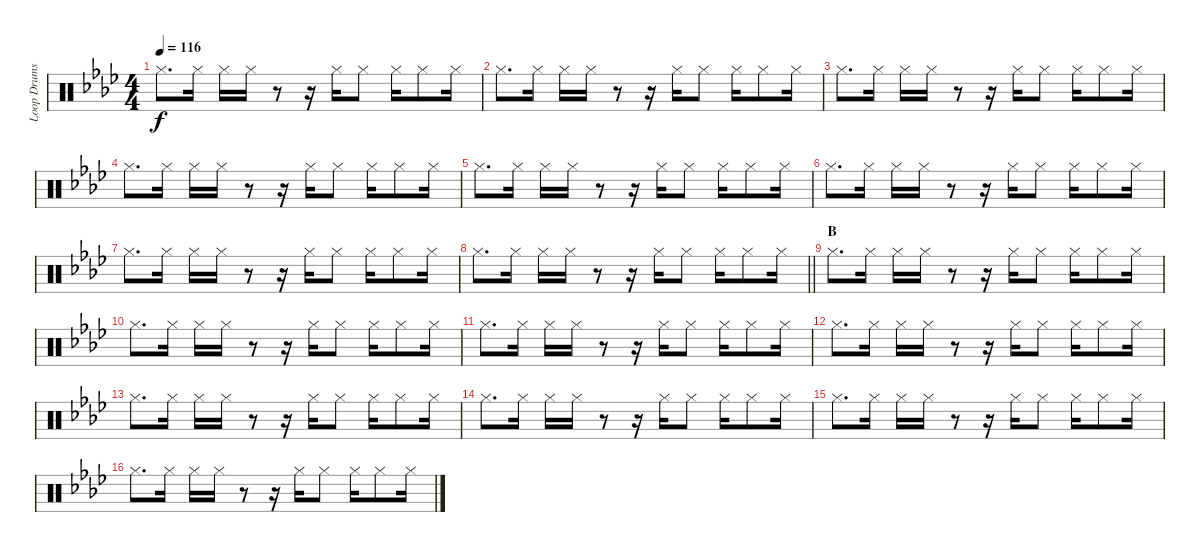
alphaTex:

\track ("Loop Drums II" "Loop Drums") {instrument percussion}
\staff {score}
\articulation defaults
\ts (4 4)
\tempo 116
\clef neutral
\ks ab "Hi-Hat (closed)".8{d dy f} "Hi-Hat (closed)".16 "Hi-Hat (closed)".16 "Hi-Hat (closed)".16
r.8 r.16 "Hi-Hat (closed)".16 "Hi-Hat (closed)".8 "Hi-Hat (closed)".16 "Hi-Hat (closed)".8 "Hi-Hat (closed)".16 |
"Hi-Hat (closed)".8{d} "Hi-Hat (closed)".16 "Hi-Hat (closed)".16 "Hi-Hat (closed)".16 r.8 r.16 "Hi-Hat (closed)".16 "Hi-Hat (closed)".8 "Hi-Hat (closed)".16 "Hi-Hat (closed)".8 "Hi-Hat (closed)".16 |
"Hi-Hat (closed)".8{d} "Hi-Hat (closed)".16 "Hi-Hat (closed)".16 "Hi-Hat (closed)".16 r.8 r.16 "Hi-Hat (closed)".16 "Hi-Hat (closed)".8 "Hi-Hat (closed)".16 "Hi-Hat (closed)".8 "Hi-Hat (closed)".16 |
"Hi-Hat (closed)".8{d} "Hi-Hat (closed)".16 "Hi-Hat (closed)".16 "Hi-Hat (closed)".16 r.8 r.16 "Hi-Hat (closed)".16 "Hi-Hat (closed)".8 "Hi-Hat (closed)".16 "Hi-Hat (closed)".8 "Hi-Hat (closed)".16 |
"Hi-Hat (closed)".8{d} "Hi-Hat (closed)".16 "Hi-Hat (closed)".16 "Hi-Hat (closed)".16 r.8 r.16 "Hi-Hat (closed)".16 "Hi-Hat (closed)".8 "Hi-Hat (closed)".16 "Hi-Hat (closed)".8 "Hi-Hat (closed)".16 |
"Hi-Hat (closed)".8{d} "Hi-Hat (closed)".16 "Hi-Hat (closed)".16 "Hi-Hat (closed)".16 r.8 r.16 "Hi-Hat (closed)".16 "Hi-Hat (closed)".8 "Hi-Hat (closed)".16 "Hi-Hat (closed)".8 "Hi-Hat (closed)".16 |
"Hi-Hat (closed)".8{d} "Hi-Hat (closed)".16 "Hi-Hat (closed)".16 "Hi-Hat (closed)".16 r.8 r.16 "Hi-Hat (closed)".16 "Hi-Hat (closed)".8 "Hi-Hat (closed)".16 "Hi-Hat (closed)".8 "Hi-Hat (closed)".16 |
\barLineRight lightlight "Hi-Hat (closed)".8{d} "Hi-Hat (closed)".16 "Hi-Hat (closed)".16 "Hi-Hat (closed)".16
r.8 r.16 "Hi-Hat (closed)".16 "Hi-Hat (closed)".8 "Hi-Hat (closed)".16 "Hi-Hat (closed)".8 "Hi-Hat (closed)".16 |
\section ("" "B")
"Hi-Hat (closed)".8{d} "Hi-Hat (closed)".16 "Hi-Hat (closed)".16 "Hi-Hat (closed)".16 r.8 r.16 "Hi-Hat (closed)".16 "Hi-Hat (closed)".8 "Hi-Hat (closed)".16 "Hi-Hat (closed)".8 "Hi-Hat (closed)".16 |
"Hi-Hat (closed)".8{d} "Hi-Hat (closed)".16 "Hi-Hat (closed)".16 "Hi-Hat (closed)".16 r.8 r.16 "Hi-Hat (closed)".16 "Hi-Hat (closed)".8 "Hi-Hat (closed)".16 "Hi-Hat (closed)".8 "Hi-Hat (closed)".16 |
"Hi-Hat (closed)".8{d} "Hi-Hat (closed)".16 "Hi-Hat (closed)".16 "Hi-Hat (closed)".16 r.8 r.16 "Hi-Hat (closed)".16 "Hi-Hat (closed)".8 "Hi-Hat (closed)".16 "Hi-Hat (closed)".8 "Hi-Hat (closed)".16 |
"Hi-Hat (closed)".8{d} "Hi-Hat (closed)".16 "Hi-Hat (closed)".16 "Hi-Hat (closed)".16 r.8 r.16 "Hi-Hat (closed)".16 "Hi-Hat (closed)".8 "Hi-Hat (closed)".16 "Hi-Hat (closed)".8 "Hi-Hat (closed)".16 |
"Hi-Hat (closed)".8{d} "Hi-Hat (closed)".16 "Hi-Hat (closed)".16 "Hi-Hat (closed)".16 r.8 r.16 "Hi-Hat (closed)".16 "Hi-Hat (closed)".8 "Hi-Hat (closed)".16 "Hi-Hat (closed)".8 "Hi-Hat (closed)".16 |
"Hi-Hat (closed)".8{d} "Hi-Hat (closed)".16 "Hi-Hat (closed)".16 "Hi-Hat (closed)".16 r.8 r.16 "Hi-Hat (closed)".16 "Hi-Hat (closed)".8 "Hi-Hat (closed)".16 "Hi-Hat (closed)".8 "Hi-Hat (closed)".16 |
"Hi-Hat (closed)".8{d} "Hi-Hat (closed)".16 "Hi-Hat (closed)".16 "Hi-Hat (closed)".16 r.8 r.16 "Hi-Hat (closed)".16 "Hi-Hat (closed)".8 "Hi-Hat (closed)".16 "Hi-Hat (closed)".8 "Hi-Hat (closed)".16 |
"Hi-Hat (closed)".8{d} "Hi-Hat (closed)".16 "Hi-Hat (closed)".16 "Hi-Hat (closed)".16 r.8 r.16 "Hi-Hat (closed)".16 "Hi-Hat (closed)".8 "Hi-Hat (closed)".16 "Hi-Hat (closed)".8 "Hi-Hat (closed)".16
